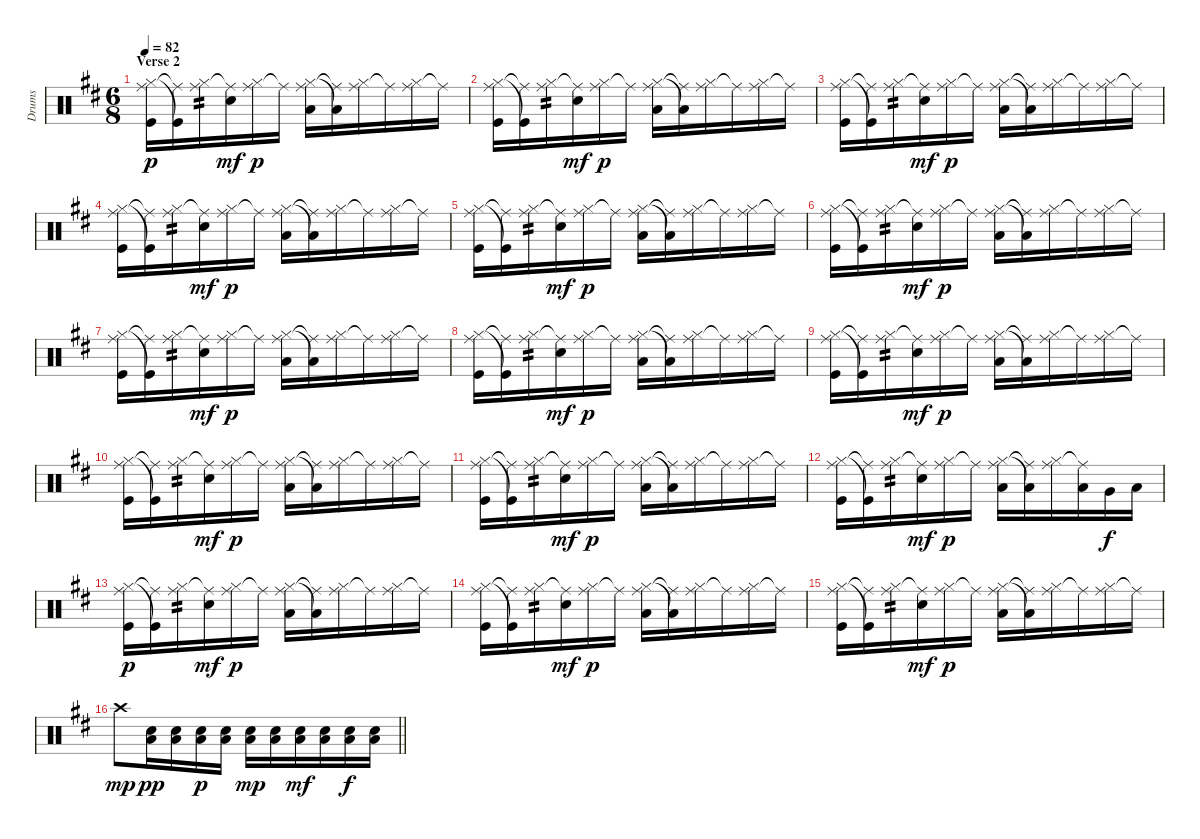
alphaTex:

\track ("Drums" "Drums") {instrument percussion}
\staff {score}
\articulation defaults
\ts (6 8)
\section ("" "Verse 2")
\tempo 82
\clef neutral
\ks d
("Ride (middle)" "Hi-Hat (closed)" "Kick (hit)").16{dy p} ("Ride (middle)"{t} "Kick (hit)"{t}).16 ("Ride (middle)" "Hi-Hat (closed)").16{tp 2} ("Ride (middle)"{t} "Electric Snare (hit)").16{dy mf} ("Ride (middle)" "Hi-Hat (closed)").16{dy p} "Ride (middle)"{t}.16 ("Ride (middle)" "Hi-Hat (closed)" "Low Floor Tom (hit)").16 ("Ride (middle)"{t} "Low Floor Tom (hit)"{t}).16 ("Ride (middle)" "Hi-Hat (closed)").16 "Ride (middle)"{t}.16 ("Ride (middle)" "Hi-Hat (closed)").16 "Ride (middle)"{t}.16 |
("Ride (middle)" "Hi-Hat (closed)" "Kick (hit)").16 ("Ride (middle)"{t} "Kick (hit)"{t}).16 ("Ride (middle)" "Hi-Hat (closed)").16{tp 2} ("Ride (middle)"{t} "Electric Snare (hit)").16{dy mf} ("Ride (middle)" "Hi-Hat (closed)").16{dy p} "Ride (middle)"{t}.16 ("Ride (middle)" "Hi-Hat (closed)" "Low Floor Tom (hit)").16 ("Ride (middle)"{t} "Low Floor Tom (hit)"{t}).16 ("Ride (middle)" "Hi-Hat (closed)").16 "Ride (middle)"{t}.16 ("Ride (middle)" "Hi-Hat (closed)").16 "Ride (middle)"{t}.16 |
("Ride (middle)" "Hi-Hat (closed)" "Kick (hit)").16 ("Ride (middle)"{t} "Kick (hit)"{t}).16 ("Ride (middle)" "Hi-Hat (closed)").16{tp 2} ("Ride (middle)"{t} "Electric Snare (hit)").16{dy mf} ("Ride (middle)" "Hi-Hat (closed)").16{dy p} "Ride (middle)"{t}.16 ("Ride (middle)" "Hi-Hat (closed)" "Low Floor Tom (hit)").16 ("Ride (middle)"{t} "Low Floor Tom (hit)"{t}).16 ("Ride (middle)" "Hi-Hat (closed)").16 "Ride (middle)"{t}.16 ("Ride (middle)" "Hi-Hat (closed)").16 "Ride (middle)"{t}.16 |
("Ride (middle)" "Hi-Hat (closed)" "Kick (hit)").16 ("Ride (middle)"{t} "Kick (hit)"{t}).16 ("Ride (middle)" "Hi-Hat (closed)").16{tp 2} ("Ride (middle)"{t} "Electric Snare (hit)").16{dy mf} ("Ride (middle)" "Hi-Hat (closed)").16{dy p} "Ride (middle)"{t}.16 ("Ride (middle)" "Hi-Hat (closed)" "Low Floor Tom (hit)").16 ("Ride (middle)"{t} "Low Floor Tom (hit)"{t}).16 ("Ride (middle)" "Hi-Hat (closed)").16 "Ride (middle)"{t}.16 ("Ride (middle)" "Hi-Hat (closed)").16 "Ride (middle)"{t}.16 |
("Ride (middle)" "Hi-Hat (closed)" "Kick (hit)").16 ("Ride (middle)"{t} "Kick (hit)"{t}).16 ("Ride (middle)" "Hi-Hat (closed)").16{tp 2} ("Ride (middle)"{t} "Electric Snare (hit)").16{dy mf} ("Ride (middle)" "Hi-Hat (closed)").16{dy p} "Ride (middle)"{t}.16 ("Ride (middle)" "Hi-Hat (closed)" "Low Floor Tom (hit)").16 ("Ride (middle)"{t} "Low Floor Tom (hit)"{t}).16 ("Ride (middle)" "Hi-Hat (closed)").16 "Ride (middle)"{t}.16 ("Ride (middle)" "Hi-Hat (closed)").16 "Ride (middle)"{t}.16 |
("Ride (middle)" "Hi-Hat (closed)" "Kick (hit)").16 ("Ride (middle)"{t} "Kick (hit)"{t}).16 ("Ride (middle)" "Hi-Hat (closed)").16{tp 2} ("Ride (middle)"{t} "Electric Snare (hit)").16{dy mf} ("Ride (middle)" "Hi-Hat (closed)").16{dy p} "Ride (middle)"{t}.16 ("Ride (middle)" "Hi-Hat (closed)" "Low Floor Tom (hit)").16 ("Ride (middle)"{t} "Low Floor Tom (hit)"{t}).16 ("Ride (middle)" "Hi-Hat (closed)").16 "Ride (middle)"{t}.16 ("Ride (middle)" "Hi-Hat (closed)").16 "Ride (middle)"{t}.16 |
("Ride (middle)" "Hi-Hat (closed)" "Kick (hit)").16 ("Ride (middle)"{t} "Kick (hit)"{t}).16 ("Ride (middle)" "Hi-Hat (closed)").16{tp 2} ("Ride (middle)"{t} "Electric Snare (hit)").16{dy mf} ("Ride (middle)" "Hi-Hat (closed)").16{dy p} "Ride (middle)"{t}.16 ("Ride (middle)" "Hi-Hat (closed)" "Low Floor Tom (hit)").16 ("Ride (middle)"{t} "Low Floor Tom (hit)"{t}).16 ("Ride (middle)" "Hi-Hat (closed)").16 "Ride (middle)"{t}.16 ("Ride (middle)" "Hi-Hat (closed)").16 "Ride (middle)"{t}.16 |
("Ride (middle)" "Hi-Hat (closed)" "Kick (hit)").16 ("Ride (middle)"{t} "Kick (hit)"{t}).16 ("Ride (middle)" "Hi-Hat (closed)").16{tp 2} ("Ride (middle)"{t} "Electric Snare (hit)").16{dy mf} ("Ride (middle)" "Hi-Hat (closed)").16{dy p} "Ride (middle)"{t}.16 ("Ride (middle)" "Hi-Hat (closed)" "Low Floor Tom (hit)").16 ("Ride (middle)"{t} "Low Floor Tom (hit)"{t}).16 ("Ride (middle)" "Hi-Hat (closed)").16 "Ride (middle)"{t}.16 ("Ride (middle)" "Hi-Hat (closed)").16 "Ride (middle)"{t}.16 |
("Ride (middle)" "Hi-Hat (closed)" "Kick (hit)").16 ("Ride (middle)"{t} "Kick (hit)"{t}).16 ("Ride (middle)" "Hi-Hat (closed)").16{tp 2} ("Ride (middle)"{t} "Electric Snare (hit)").16{dy mf} ("Ride (middle)" "Hi-Hat (closed)").16{dy p} "Ride (middle)"{t}.16 ("Ride (middle)" "Hi-Hat (closed)" "Low Floor Tom (hit)").16 ("Ride (middle)"{t} "Low Floor Tom (hit)"{t}).16 ("Ride (middle)" "Hi-Hat (closed)").16 "Ride (middle)"{t}.16 ("Ride (middle)" "Hi-Hat (closed)").16 "Ride (middle)"{t}.16 |
("Ride (middle)" "Hi-Hat (closed)" "Kick (hit)").16 ("Ride (middle)"{t} "Kick (hit)"{t}).16 ("Ride (middle)" "Hi-Hat (closed)").16{tp 2} ("Ride (middle)"{t} "Electric Snare (hit)").16{dy mf} ("Ride (middle)" "Hi-Hat (closed)").16{dy p} "Ride (middle)"{t}.16 ("Ride (middle)" "Hi-Hat (closed)" "Low Floor Tom (hit)").16 ("Ride (middle)"{t} "Low Floor Tom (hit)"{t}).16 ("Ride (middle)" "Hi-Hat (closed)").16 "Ride (middle)"{t}.16 ("Ride (middle)" "Hi-Hat (closed)").16 "Ride (middle)"{t}.16 |
("Ride (middle)" "Hi-Hat (closed)" "Kick (hit)").16 ("Ride (middle)"{t} "Kick (hit)"{t}).16 ("Ride (middle)" "Hi-Hat (closed)").16{tp 2} ("Ride (middle)"{t} "Electric Snare (hit)").16{dy mf} ("Ride (middle)" "Hi-Hat (closed)").16{dy p} "Ride (middle)"{t}.16 ("Ride (middle)" "Hi-Hat (closed)" "Low Floor Tom (hit)").16 ("Ride (middle)"{t} "Low Floor Tom (hit)"{t}).16 ("Ride (middle)" "Hi-Hat (closed)").16 "Ride (middle)"{t}.16 ("Ride (middle)" "Hi-Hat (closed)").16 "Ride (middle)"{t}.16 |
("Ride (middle)" "Hi-Hat (closed)" "Kick (hit)").16 ("Ride (middle)"{t} "Kick (hit)"{t}).16 ("Ride (middle)" "Hi-Hat (closed)").16{tp 2} ("Ride (middle)"{t} "Electric Snare (hit)").16{dy mf} ("Ride (middle)" "Hi-Hat (closed)").16{dy p} "Ride (middle)"{t}.16 ("Ride (middle)" "Hi-Hat (closed)" "Low Floor Tom (hit)").16 ("Ride (middle)"{t} "Low Floor Tom (hit)"{t}).16 ("Ride (middle)" "Hi-Hat (closed)").16 ("Ride (middle)"{t} "Low Tom (hit)").16 "Very Low Tom (hit)".16{dy f} "Low Floor Tom (hit)".16 |
("Ride (middle)" "Hi-Hat (closed)" "Kick (hit)").16{dy p} ("Ride (middle)"{t} "Kick (hit)"{t}).16 ("Ride (middle)" "Hi-Hat (closed)").16{tp 2} ("Ride (middle)"{t} "Electric Snare (hit)").16{dy mf} ("Ride (middle)" "Hi-Hat (closed)").16{dy p} "Ride (middle)"{t}.16 ("Ride (middle)" "Hi-Hat (closed)" "Low Floor Tom (hit)").16 ("Ride (middle)"{t} "Low Floor Tom (hit)"{t}).16 ("Ride (middle)" "Hi-Hat (closed)").16 "Ride (middle)"{t}.16 ("Ride (middle)" "Hi-Hat (closed)").16 "Ride (middle)"{t}.16 |
("Ride (middle)" "Hi-Hat (closed)" "Kick (hit)").16 ("Ride (middle)"{t} "Kick (hit)"{t}).16 ("Ride (middle)" "Hi-Hat (closed)").16{tp 2} ("Ride (middle)"{t} "Electric Snare (hit)").16{dy mf} ("Ride (middle)" "Hi-Hat (closed)").16{dy p} "Ride (middle)"{t}.16 ("Ride (middle)" "Hi-Hat (closed)" "Low Floor Tom (hit)").16 ("Ride (middle)"{t} "Low Floor Tom (hit)"{t}).16 ("Ride (middle)" "Hi-Hat (closed)").16 "Ride (middle)"{t}.16 ("Ride (middle)" "Hi-Hat (closed)").16 "Ride (middle)"{t}.16 |
("Ride (middle)" "Hi-Hat (closed)" "Kick (hit)").16 ("Ride (middle)"{t} "Kick (hit)"{t}).16 ("Ride (middle)" "Hi-Hat (closed)").16{tp 2} ("Ride (middle)"{t} "Electric Snare (hit)").16{dy mf} ("Ride (middle)" "Hi-Hat (closed)").16{dy p} "Ride (middle)"{t}.16 ("Ride (middle)" "Hi-Hat (closed)" "Low Floor Tom (hit)").16 ("Ride (middle)"{t} "Low Floor Tom (hit)"{t}).16 ("Ride (middle)" "Hi-Hat (closed)").16 "Ride (middle)"{t}.16 ("Ride (middle)" "Hi-Hat (closed)").16 "Ride (middle)"{t}.16 |
\barLineRight lightlight "Crash high (hit)".8{dy mp}
("Electric Snare (hit)" "Low Floor Tom (hit)").16{dy pp} ("Electric Snare (hit)" "Low Floor Tom (hit)").16 ("Electric Snare (hit)" "Low Floor Tom (hit)").16{dy p} ("Electric Snare (hit)" "Low Floor Tom (hit)").16 ("Electric Snare (hit)" "Low Floor Tom (hit)").16{dy mp} ("Electric Snare (hit)" "Low Floor Tom (hit)").16 ("Electric Snare (hit)" "Low Floor Tom (hit)").16{dy mf} ("Electric Snare (hit)" "Low Floor Tom (hit)").16 ("Electric Snare (hit)" "Low Floor Tom (hit)").16{dy f} ("Electric Snare (hit)" "Low Floor Tom (hit)").16
